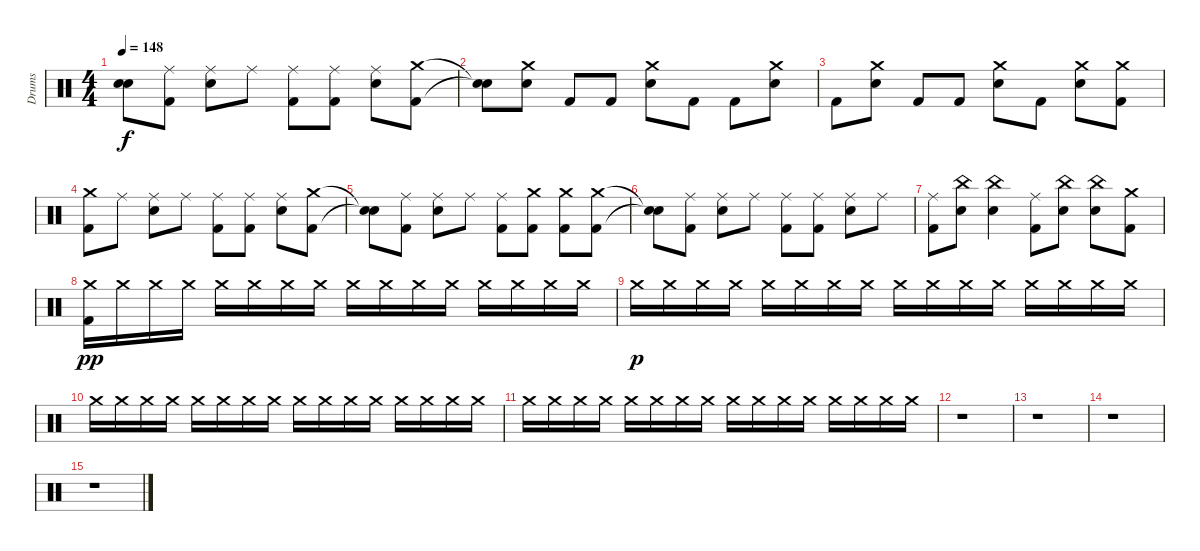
\track ("Drums" "Drums") {instrument percussion}
\staff {score}
\articulation defaults
\ts (4 4)
\tempo 148
\clef neutral
\ks c
("Snare (hit)"{t} "Snare (hit)"{t}).8{dy f} ("Ride (middle)" "Kick (hit) 2").8 ("Ride (middle)" "Snare (hit) 2").8 "Ride (middle)".8 ("Ride (middle)" "Kick (hit) 2").8 ("Ride (middle)" "Kick (hit) 2").8 ("Ride (middle)" "Snare (hit) 2").8 ("Crash medium (hit)" "Kick (hit) 2").8 |
("Snare (hit)"{t} "Snare (hit)"{t}).8 ("Crash medium (hit)" "Snare (hit) 2").8 "Kick (hit) 2".8 "Kick (hit) 2".8 ("Crash medium (hit)" "Snare (hit) 2").8 "Kick (hit) 2".8 "Kick (hit) 2".8 ("Crash medium (hit)" "Snare (hit) 2").8 |
"Kick (hit) 2".8 ("Crash medium (hit)" "Snare (hit) 2").8 "Kick (hit) 2".8 "Kick (hit) 2".8 ("Crash medium (hit)" "Snare (hit) 2").8 "Kick (hit) 2".8 ("Crash medium (hit)" "Snare (hit) 2").8 ("Crash medium (hit)" "Kick (hit) 2").8 |
("Crash medium (hit)" "Kick (hit) 2").8 "Ride (middle)".8 ("Ride (middle)" "Snare (hit) 2").8 "Ride (middle)".8 ("Ride (middle)" "Kick (hit) 2").8 ("Ride (middle)" "Kick (hit) 2").8 ("Ride (middle)" "Snare (hit) 2").8 ("Crash medium (hit)" "Kick (hit) 2").8 |
("Snare (hit)"{t} "Snare (hit)"{t}).8 ("Ride (middle)" "Kick (hit) 2").8 ("Ride (middle)" "Snare (hit) 2").8 "Ride (middle)".8 ("Ride (middle)" "Kick (hit) 2").8 ("Crash medium (hit)" "Kick (hit) 2").8 ("Crash medium (hit)" "Kick (hit) 2").8 ("Crash medium (hit)" "Kick (hit) 2").8 |
("Snare (hit)"{t} "Snare (hit)"{t}).8 ("Ride (middle)" "Kick (hit) 2").8 ("Ride (middle)" "Snare (hit) 2").8 "Ride (middle)".8 ("Ride (middle)" "Kick (hit) 2").8 ("Ride (middle)" "Kick (hit) 2").8 ("Ride (middle)" "Snare (hit) 2").8 "Ride (middle)".8 |
("Ride (middle)" "Kick (hit) 2").8 ("China (hit)" "Snare (hit) 2").8 ("China (hit)" "Snare (hit) 2").4 ("Ride (middle)" "Kick (hit) 2").8 ("China (hit)" "Snare (hit) 2").8 ("China (hit)" "Snare (hit) 2").8 ("Crash medium (hit)" "Kick (hit) 2").8 |
("Crash medium (hit)" "Kick (hit) 2").16{dy pp} "Crash medium (hit)".16 "Crash medium (hit)".16 "Crash medium (hit)".16 "Crash medium (hit)".16 "Crash medium (hit)".16 "Crash medium (hit)".16 "Crash medium (hit)".16 "Crash medium (hit)".16 "Crash medium (hit)".16 "Crash medium (hit)".16 "Crash medium (hit)".16 "Crash medium (hit)".16 "Crash medium (hit)".16 "Crash medium (hit)".16 "Crash medium (hit)".16 |
"Crash medium (hit)".16{dy p} "Crash medium (hit)".16 "Crash medium (hit)".16 "Crash medium (hit)".16 "Crash medium (hit)".16 "Crash medium (hit)".16 "Crash medium (hit)".16 "Crash medium (hit)".16 "Crash medium (hit)".16 "Crash medium (hit)".16 "Crash medium (hit)".16 "Crash medium (hit)".16 "Crash medium (hit)".16 "Crash medium (hit)".16 "Crash medium (hit)".16 "Crash medium (hit)".16 |
"Crash medium (hit)".16 "Crash medium (hit)".16 "Crash medium (hit)".16 "Crash medium (hit)".16 "Crash medium (hit)".16 "Crash medium (hit)".16 "Crash medium (hit)".16 "Crash medium (hit)".16 "Crash medium (hit)".16 "Crash medium (hit)".16 "Crash medium (hit)".16 "Crash medium (hit)".16 "Crash medium (hit)".16 "Crash medium (hit)".16 "Crash medium (hit)".16 "Crash medium (hit)".16 |
"Crash medium (hit)".16 "Crash medium (hit)".16 "Crash medium (hit)".16 "Crash medium (hit)".16 "Crash medium (hit)".16 "Crash medium (hit)".16 "Crash medium (hit)".16 "Crash medium (hit)".16 "Crash medium (hit)".16 "Crash medium (hit)".16 "Crash medium (hit)".16 "Crash medium (hit)".16 "Crash medium (hit)".16 "Crash medium (hit)".16 "Crash medium (hit)".16 "Crash medium (hit)".16 |
r.1 |
r.1 |
r.1 |
r.1
